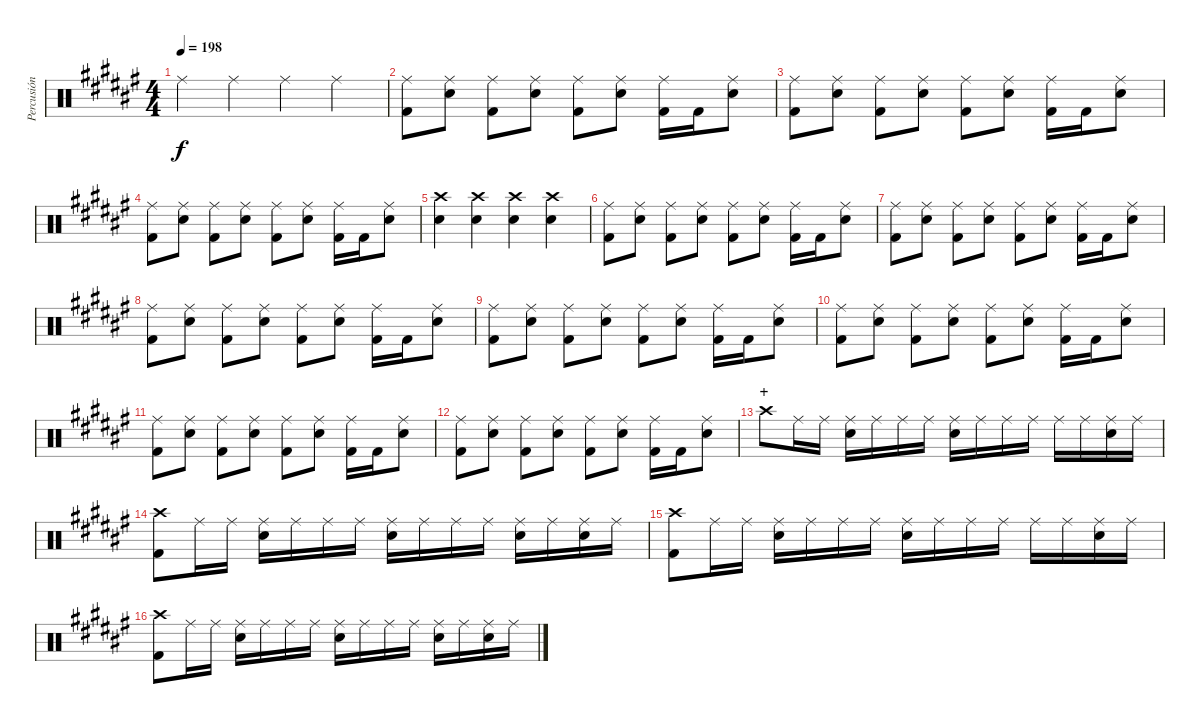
\track ("Percusión" "Percusión") {instrument percussion}
\staff {score}
\articulation defaults
\ts (4 4)
\tempo 198
\clef neutral
\ks d#minor "Ride (middle)".4{dy f} "Ride (middle)".4 "Ride (middle)".4 "Ride (middle)".4
|
("Ride (middle)" "Kick (hit) 2").8 ("Ride (middle)" "Snare (hit) 2").8 ("Ride (middle)" "Kick (hit) 2").8 ("Ride (middle)" "Snare (hit) 2").8 ("Ride (middle)" "Kick (hit) 2").8 ("Ride (middle)" "Snare (hit) 2").8 ("Ride (middle)" "Kick (hit) 2").16 "Kick (hit) 2".16 ("Ride (middle)" "Snare (hit) 2").8 |
("Ride (middle)" "Kick (hit) 2").8 ("Ride (middle)" "Snare (hit) 2").8 ("Ride (middle)" "Kick (hit) 2").8 ("Ride (middle)" "Snare (hit) 2").8 ("Ride (middle)" "Kick (hit) 2").8 ("Ride (middle)" "Snare (hit) 2").8 ("Ride (middle)" "Kick (hit) 2").16 "Kick (hit) 2".16 ("Ride (middle)" "Snare (hit) 2").8 |
("Ride (middle)" "Kick (hit) 2").8 ("Ride (middle)" "Snare (hit) 2").8 ("Ride (middle)" "Kick (hit) 2").8 ("Ride (middle)" "Snare (hit) 2").8 ("Ride (middle)" "Kick (hit) 2").8 ("Ride (middle)" "Snare (hit) 2").8 ("Ride (middle)" "Kick (hit) 2").16 "Kick (hit) 2".16 ("Ride (middle)" "Snare (hit) 2").8 |
("Crash high (hit)" "Snare (hit) 2").4 ("Crash high (hit)" "Snare (hit) 2").4 ("Crash high (hit)" "Snare (hit) 2").4 ("Crash high (hit)" "Snare (hit) 2").4 |
("Ride (middle)" "Kick (hit) 2").8 ("Ride (middle)" "Snare (hit) 2").8 ("Ride (middle)" "Kick (hit) 2").8 ("Ride (middle)" "Snare (hit) 2").8 ("Ride (middle)" "Kick (hit) 2").8 ("Ride (middle)" "Snare (hit) 2").8 ("Ride (middle)" "Kick (hit) 2").16 "Kick (hit) 2".16 ("Ride (middle)" "Snare (hit) 2").8 |
("Ride (middle)" "Kick (hit) 2").8 ("Ride (middle)" "Snare (hit) 2").8 ("Ride (middle)" "Kick (hit) 2").8 ("Ride (middle)" "Snare (hit) 2").8 ("Ride (middle)" "Kick (hit) 2").8 ("Ride (middle)" "Snare (hit) 2").8 ("Ride (middle)" "Kick (hit) 2").16 "Kick (hit) 2".16 ("Ride (middle)" "Snare (hit) 2").8 |
("Ride (middle)" "Kick (hit) 2").8 ("Ride (middle)" "Snare (hit) 2").8 ("Ride (middle)" "Kick (hit) 2").8 ("Ride (middle)" "Snare (hit) 2").8 ("Ride (middle)" "Kick (hit) 2").8 ("Ride (middle)" "Snare (hit) 2").8 ("Ride (middle)" "Kick (hit) 2").16 "Kick (hit) 2".16 ("Ride (middle)" "Snare (hit) 2").8 |
("Ride (middle)" "Kick (hit) 2").8 ("Ride (middle)" "Snare (hit) 2").8 ("Ride (middle)" "Kick (hit) 2").8 ("Ride (middle)" "Snare (hit) 2").8 ("Ride (middle)" "Kick (hit) 2").8 ("Ride (middle)" "Snare (hit) 2").8 ("Ride (middle)" "Kick (hit) 2").16 "Kick (hit) 2".16 ("Ride (middle)" "Snare (hit) 2").8 |
("Ride (middle)" "Kick (hit) 2").8 ("Ride (middle)" "Snare (hit) 2").8 ("Ride (middle)" "Kick (hit) 2").8 ("Ride (middle)" "Snare (hit) 2").8 ("Ride (middle)" "Kick (hit) 2").8 ("Ride (middle)" "Snare (hit) 2").8 ("Ride (middle)" "Kick (hit) 2").16 "Kick (hit) 2".16 ("Ride (middle)" "Snare (hit) 2").8 |
("Ride (middle)" "Kick (hit) 2").8 ("Ride (middle)" "Snare (hit) 2").8 ("Ride (middle)" "Kick (hit) 2").8 ("Ride (middle)" "Snare (hit) 2").8 ("Ride (middle)" "Kick (hit) 2").8 ("Ride (middle)" "Snare (hit) 2").8 ("Ride (middle)" "Kick (hit) 2").16 "Kick (hit) 2".16 ("Ride (middle)" "Snare (hit) 2").8 |
("Ride (middle)" "Kick (hit) 2").8 ("Ride (middle)" "Snare (hit) 2").8 ("Ride (middle)" "Kick (hit) 2").8 ("Ride (middle)" "Snare (hit) 2").8 ("Ride (middle)" "Kick (hit) 2").8 ("Ride (middle)" "Snare (hit) 2").8 ("Ride (middle)" "Kick (hit) 2").16 "Kick (hit) 2".16 ("Ride (middle)" "Snare (hit) 2").8 |
\section ("" "+")
"Crash high (hit)".8 "Ride (middle)".16 "Ride (middle)".16 ("Ride (middle)" "Snare (hit) 2").16 "Ride (middle)".16 "Ride (middle)".16 "Ride (middle)".16 ("Ride (middle)" "Snare (hit) 2").16 "Ride (middle)".16 "Ride (middle)".16 "Ride (middle)".16 "Ride (middle)".16 "Ride (middle)".16 ("Ride (middle)" "Snare (hit) 2").16 "Ride (middle)".16 |
("Crash high (hit)" "Kick (hit) 2").8 "Ride (middle)".16 "Ride (middle)".16 ("Ride (middle)" "Snare (hit) 2").16 "Ride (middle)".16 "Ride (middle)".16 "Ride (middle)".16 ("Ride (middle)" "Snare (hit) 2").16 "Ride (middle)".16 "Ride (middle)".16 "Ride (middle)".16 ("Ride (middle)" "Snare (hit) 2").16 "Ride (middle)".16 ("Ride (middle)" "Snare (hit) 2").16 "Ride (middle)".16 |
("Crash high (hit)" "Kick (hit) 2").8 "Ride (middle)".16 "Ride (middle)".16 ("Ride (middle)" "Snare (hit) 2").16 "Ride (middle)".16 "Ride (middle)".16 "Ride (middle)".16 ("Ride (middle)" "Snare (hit) 2").16 "Ride (middle)".16 "Ride (middle)".16 "Ride (middle)".16 "Ride (middle)".16 "Ride (middle)".16 ("Ride (middle)" "Snare (hit) 2").16 "Ride (middle)".16 |
("Crash high (hit)" "Kick (hit) 2").8 "Ride (middle)".16 "Ride (middle)".16 ("Ride (middle)" "Snare (hit) 2").16 "Ride (middle)".16 "Ride (middle)".16 "Ride (middle)".16 ("Ride (middle)" "Snare (hit) 2").16 "Ride (middle)".16 "Ride (middle)".16 "Ride (middle)".16 ("Ride (middle)" "Snare (hit) 2").16 "Ride (middle)".16 ("Ride (middle)" "Snare (hit) 2").16 "Ride (middle)".16
